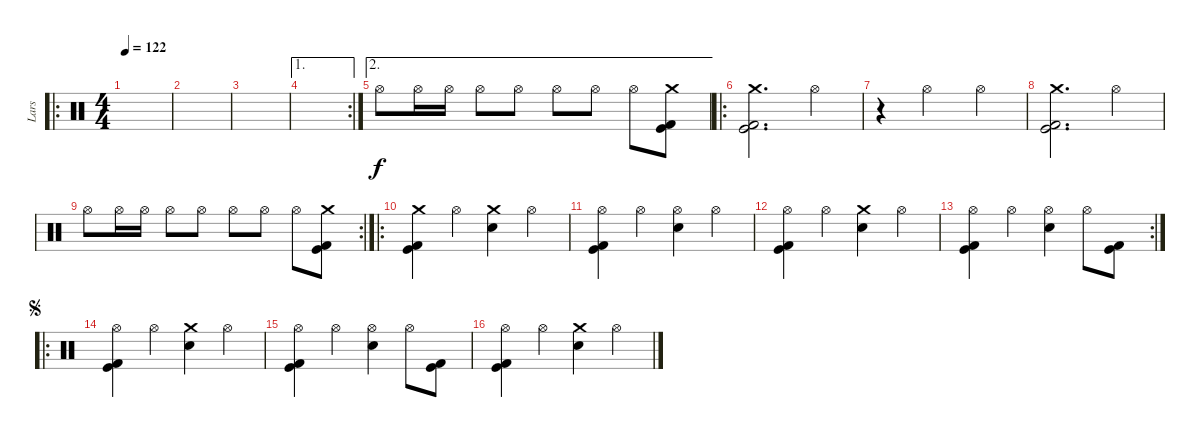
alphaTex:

\track ("Lars" "Lars") {instrument percussion}
\staff {score}
\articulation defaults
\ro
\ts (4 4)
\tempo 122
\clef neutral
\ks aminor
|
|
|
\ae 1
\rc 2
|
\ae 2 "Hi-Hat (open)".8 "Hi-Hat (open)".16 "Hi-Hat (open)".16 "Hi-Hat (open)".8 "Hi-Hat (open)".8 "Hi-Hat (open)".8 "Hi-Hat (open)".8 "Hi-Hat (open)".8
("Crash medium (hit)" "Kick (hit)" "Kick (hit) 2").8 |
\ro
("Crash medium (hit)" "Kick (hit)" "Kick (hit) 2").2{d} "Hi-Hat (open)".4 |
r.4 "Hi-Hat (open)".2 "Hi-Hat (open)".4 |
("Crash medium (hit)" "Kick (hit)" "Kick (hit) 2").2{d} "Hi-Hat (open)".4 |
\rc 2 "Hi-Hat (open)".8 "Hi-Hat (open)".16 "Hi-Hat (open)".16 "Hi-Hat (open)".8 "Hi-Hat (open)".8 "Hi-Hat (open)".8 "Hi-Hat (open)".8 "Hi-Hat (open)".8
("Crash medium (hit)" "Kick (hit)" "Kick (hit) 2").8 |
\ro
("Crash medium (hit)" "Kick (hit)" "Kick (hit) 2").4 "Hi-Hat (open)".4 ("Crash medium (hit)" "Electric Snare (hit)").4 "Hi-Hat (open)".4 |
("Hi-Hat (open)" "Kick (hit)" "Kick (hit) 2").4 "Hi-Hat (open)".4 ("Hi-Hat (open)" "Electric Snare (hit)").4 "Hi-Hat (open)".4 |
("Hi-Hat (open)" "Kick (hit)" "Kick (hit) 2").4 "Hi-Hat (open)".4 ("Crash medium (hit)" "Electric Snare (hit)").4 "Hi-Hat (open)".4 |
\rc 2
("Hi-Hat (open)" "Kick (hit)" "Kick (hit) 2").4 "Hi-Hat (open)".4 ("Hi-Hat (open)" "Electric Snare (hit)").4 "Hi-Hat (open)".8 ("Kick (hit)" "Kick (hit) 2").8 |
\ro
\jump segno
("Hi-Hat (open)" "Kick (hit)" "Kick (hit) 2").4 "Hi-Hat (open)".4 ("Crash medium (hit)" "Electric Snare (hit)").4 "Hi-Hat (open)".4 |
("Hi-Hat (open)" "Kick (hit)" "Kick (hit) 2").4 "Hi-Hat (open)".4 ("Hi-Hat (open)" "Electric Snare (hit)").4 "Hi-Hat (open)".8 ("Kick (hit)" "Kick (hit) 2").8 |
("Hi-Hat (open)" "Kick (hit)" "Kick (hit) 2").4 "Hi-Hat (open)".4 ("Crash medium (hit)" "Electric Snare (hit)").4 "Hi-Hat (open)".4
